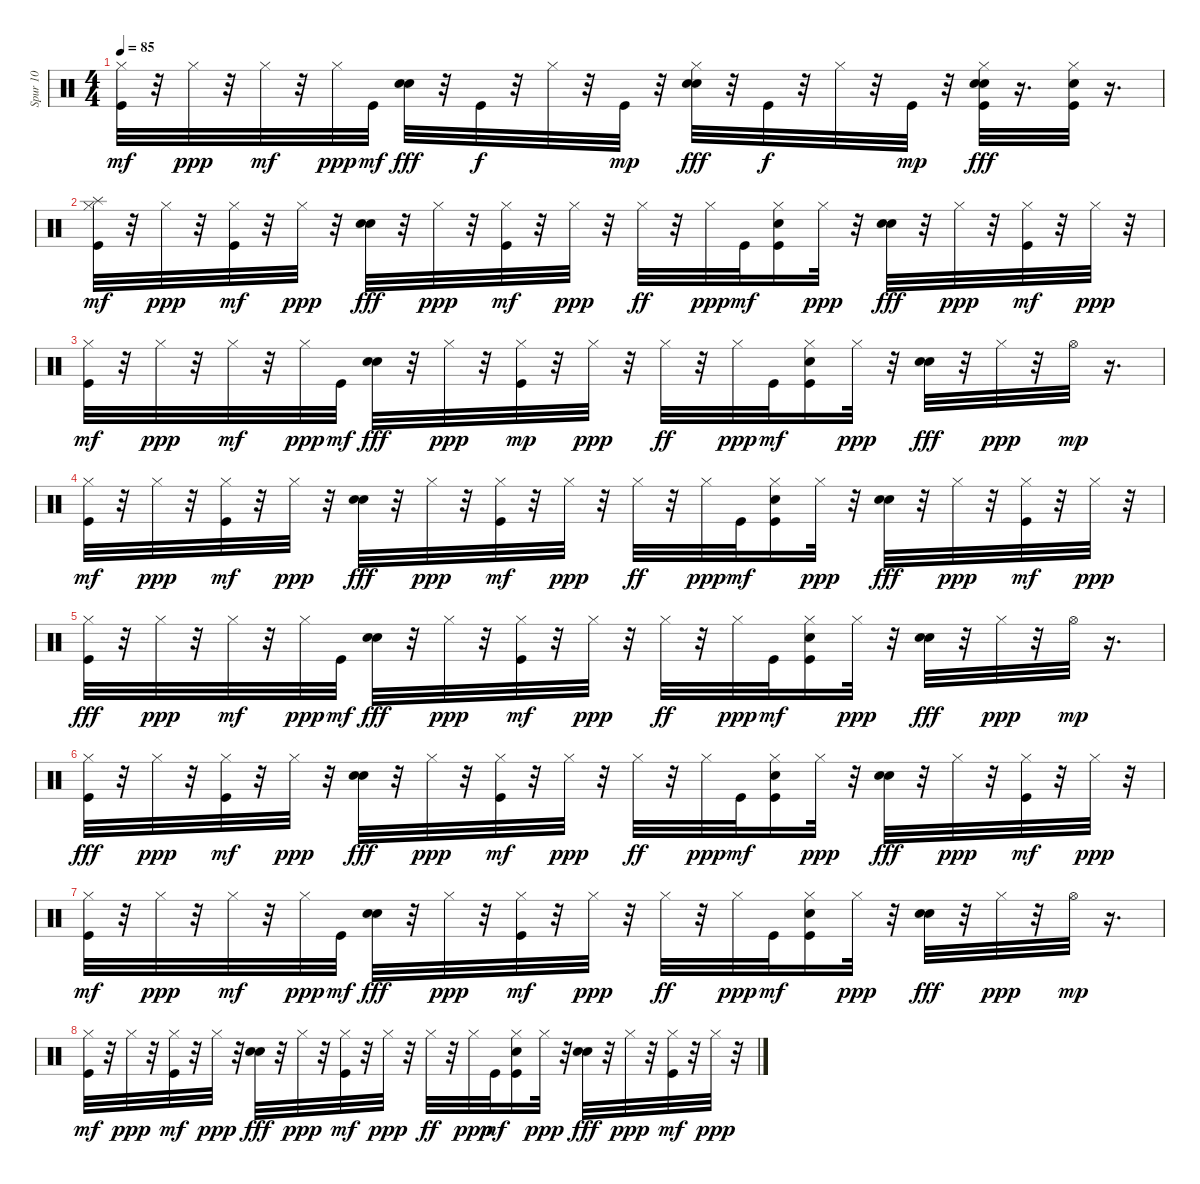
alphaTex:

\track ("Spur 10" "Spur 10") {instrument percussion}
\staff {score}
\articulation defaults
\ts (4 4)
\tempo 85
\clef neutral
\ks c
("Hi-Hat (closed)" "Kick (hit)").32{dy mf} r.32 "Hi-Hat (closed)".32{dy ppp} r.32 "Hi-Hat (closed)".32{dy mf} r.32 "Hi-Hat (closed)".32{dy ppp} "Kick (hit)".32{dy mf} ("Electric Snare (hit)" "Hand Clap (hit)").32{dy fff} r.32 "Kick (hit)".32{dy f} r.32 "Hi-Hat (closed)".32 r.32 "Kick (hit)".32{dy mp} r.32 ("Hi-Hat (closed)" "Hand Clap (hit)" "Electric Snare (hit)").32{dy fff} r.32 "Kick (hit)".32{dy f} r.32 "Hi-Hat (closed)".32 r.32 "Kick (hit)".32{dy mp} r.32 ("Electric Snare (hit)" "Hi-Hat (closed)" "Kick (hit)" "Hand Clap (hit)").32{dy fff} r.16{d} ("Hi-Hat (closed)" "Kick (hit)" "Hand Clap (hit)").32 r.16{d} |
("Splash (hit)" "Hi-Hat (closed)" "Kick (hit)").32{dy mf} r.32 "Hi-Hat (closed)".32{dy ppp} r.32 ("Kick (hit)" "Hi-Hat (closed)").32{dy mf} r.32 "Hi-Hat (closed)".32{dy ppp} r.32 ("Electric Snare (hit)" "Hand Clap (hit)").32{dy fff} r.32 "Hi-Hat (closed)".32{dy ppp} r.32 ("Hi-Hat (closed)" "Kick (hit)").32{dy mf} r.32 "Hi-Hat (closed)".32{dy ppp} r.32 "Hi-Hat (closed)".32{dy ff} r.32 "Hi-Hat (closed)".32{dy ppp} "Kick (hit)".32{dy mf} ("Kick (hit)" "Hi-Hat (closed)" "Snare (hit)").16 "Hi-Hat (closed)".32{dy ppp} r.32 ("Hand Clap (hit)" "Electric Snare (hit)").32{dy fff} r.32 "Hi-Hat (closed)".32{dy ppp} r.32 ("Hi-Hat (closed)" "Kick (hit)").32{dy mf} r.32 "Hi-Hat (closed)".32{dy ppp} r.32 |
("Hi-Hat (closed)" "Kick (hit)").32{dy mf} r.32 "Hi-Hat (closed)".32{dy ppp} r.32 "Hi-Hat (closed)".32{dy mf} r.32 "Hi-Hat (closed)".32{dy ppp} "Kick (hit)".32{dy mf} ("Electric Snare (hit)" "Hand Clap (hit)").32{dy fff} r.32 "Hi-Hat (closed)".32{dy ppp} r.32 ("Kick (hit)" "Hi-Hat (closed)").32{dy mp} r.32 "Hi-Hat (closed)".32{dy ppp} r.32 "Hi-Hat (closed)".32{dy ff} r.32 "Hi-Hat (closed)".32{dy ppp} "Kick (hit)".32{dy mf} ("Hi-Hat (closed)" "Kick (hit)" "Snare (hit)").16 "Hi-Hat (closed)".32{dy ppp} r.32 ("Hand Clap (hit)" "Electric Snare (hit)").32{dy fff} r.32 "Hi-Hat (closed)".32{dy ppp} r.32 "Hi-Hat (open)".32{dy mp} r.16{d} |
("Hi-Hat (closed)" "Kick (hit)").32{dy mf} r.32 "Hi-Hat (closed)".32{dy ppp} r.32 ("Kick (hit)" "Hi-Hat (closed)").32{dy mf} r.32 "Hi-Hat (closed)".32{dy ppp} r.32 ("Electric Snare (hit)" "Hand Clap (hit)").32{dy fff} r.32 "Hi-Hat (closed)".32{dy ppp} r.32 ("Hi-Hat (closed)" "Kick (hit)").32{dy mf} r.32 "Hi-Hat (closed)".32{dy ppp} r.32 "Hi-Hat (closed)".32{dy ff} r.32 "Hi-Hat (closed)".32{dy ppp} "Kick (hit)".32{dy mf} ("Kick (hit)" "Hi-Hat (closed)" "Snare (hit)").16 "Hi-Hat (closed)".32{dy ppp} r.32 ("Hand Clap (hit)" "Electric Snare (hit)").32{dy fff} r.32 "Hi-Hat (closed)".32{dy ppp} r.32 ("Hi-Hat (closed)" "Kick (hit)").32{dy mf} r.32 "Hi-Hat (closed)".32{dy ppp} r.32 |
("Kick (hit)" "Hi-Hat (closed)").32{dy fff} r.32 "Hi-Hat (closed)".32{dy ppp} r.32 "Hi-Hat (closed)".32{dy mf} r.32 "Hi-Hat (closed)".32{dy ppp} "Kick (hit)".32{dy mf} ("Electric Snare (hit)" "Hand Clap (hit)").32{dy fff} r.32 "Hi-Hat (closed)".32{dy ppp} r.32 ("Hi-Hat (closed)" "Kick (hit)").32{dy mf} r.32 "Hi-Hat (closed)".32{dy ppp} r.32 "Hi-Hat (closed)".32{dy ff} r.32 "Hi-Hat (closed)".32{dy ppp} "Kick (hit)".32{dy mf} ("Kick (hit)" "Hi-Hat (closed)" "Snare (hit)").16 "Hi-Hat (closed)".32{dy ppp} r.32 ("Electric Snare (hit)" "Hand Clap (hit)").32{dy fff} r.32 "Hi-Hat (closed)".32{dy ppp} r.32 "Hi-Hat (open)".32{dy mp} r.16{d} |
("Kick (hit)" "Hi-Hat (closed)").32{dy fff} r.32 "Hi-Hat (closed)".32{dy ppp} r.32 ("Hi-Hat (closed)" "Kick (hit)").32{dy mf} r.32 "Hi-Hat (closed)".32{dy ppp} r.32 ("Electric Snare (hit)" "Hand Clap (hit)").32{dy fff} r.32 "Hi-Hat (closed)".32{dy ppp} r.32 ("Kick (hit)" "Hi-Hat (closed)").32{dy mf} r.32 "Hi-Hat (closed)".32{dy ppp} r.32 "Hi-Hat (closed)".32{dy ff} r.32 "Hi-Hat (closed)".32{dy ppp} "Kick (hit)".32{dy mf} ("Kick (hit)" "Snare (hit)" "Hi-Hat (closed)").16 "Hi-Hat (closed)".32{dy ppp} r.32 ("Hand Clap (hit)" "Electric Snare (hit)").32{dy fff} r.32 "Hi-Hat (closed)".32{dy ppp} r.32 ("Hi-Hat (closed)" "Kick (hit)").32{dy mf} r.32 "Hi-Hat (closed)".32{dy ppp} r.32 |
("Hi-Hat (closed)" "Kick (hit)").32{dy mf} r.32 "Hi-Hat (closed)".32{dy ppp} r.32 "Hi-Hat (closed)".32{dy mf} r.32 "Hi-Hat (closed)".32{dy ppp} "Kick (hit)".32{dy mf} ("Electric Snare (hit)" "Hand Clap (hit)").32{dy fff} r.32 "Hi-Hat (closed)".32{dy ppp} r.32 ("Hi-Hat (closed)" "Kick (hit)").32{dy mf} r.32 "Hi-Hat (closed)".32{dy ppp} r.32 "Hi-Hat (closed)".32{dy ff} r.32 "Hi-Hat (closed)".32{dy ppp} "Kick (hit)".32{dy mf} ("Kick (hit)" "Snare (hit)" "Hi-Hat (closed)").16 "Hi-Hat (closed)".32{dy ppp} r.32 ("Hand Clap (hit)" "Electric Snare (hit)").32{dy fff} r.32 "Hi-Hat (closed)".32{dy ppp} r.32 "Hi-Hat (open)".32{dy mp} r.16{d} |
("Hi-Hat (closed)" "Kick (hit)").32{dy mf} r.32 "Hi-Hat (closed)".32{dy ppp} r.32 ("Kick (hit)" "Hi-Hat (closed)").32{dy mf} r.32 "Hi-Hat (closed)".32{dy ppp} r.32 ("Electric Snare (hit)" "Hand Clap (hit)").32{dy fff} r.32 "Hi-Hat (closed)".32{dy ppp} r.32 ("Kick (hit)" "Hi-Hat (closed)").32{dy mf} r.32 "Hi-Hat (closed)".32{dy ppp} r.32 "Hi-Hat (closed)".32{dy ff} r.32 "Hi-Hat (closed)".32{dy ppp} "Kick (hit)".32{dy mf} ("Kick (hit)" "Snare (hit)" "Hi-Hat (closed)").16 "Hi-Hat (closed)".32{dy ppp} r.32 ("Hand Clap (hit)" "Electric Snare (hit)").32{dy fff} r.32 "Hi-Hat (closed)".32{dy ppp} r.32 ("Hi-Hat (closed)" "Kick (hit)").32{dy mf} r.32 "Hi-Hat (closed)".32{dy ppp} r.32
